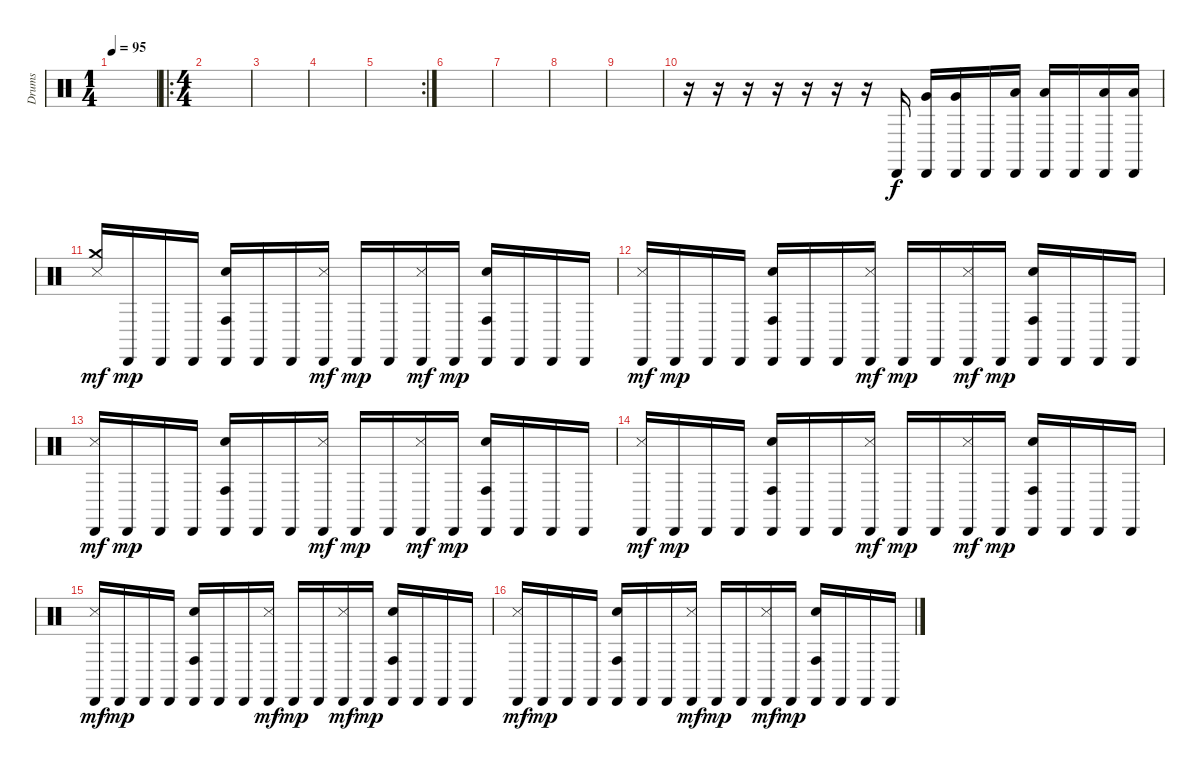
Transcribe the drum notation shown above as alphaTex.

\track ("Drums" "Drums") {instrument percussion}
\staff {score}
\articulation defaults
\ts (1 4)
\tempo 95
\clef neutral
\ks c
|
\ro
\ts (4 4)
|
|
|
\rc 2
|
|
|
|
|
r.16 r.16 r.16 r.16 r.16 r.16 r.16 "Cabasa (hit)".16 ("Cabasa (hit)" "Very Low Tom (hit)").16 ("Cabasa (hit)" "Very Low Tom (hit)").16 "Cabasa (hit)".16 ("Cabasa (hit)" "Low Floor Tom (hit)").16 ("Cabasa (hit)" "Low Floor Tom (hit)").16 "Cabasa (hit)".16 ("Cabasa (hit)" "Low Tom (hit)").16 ("Cabasa (hit)" "Low Tom (hit)").16 |
("Crash medium (hit)" "Metronome (hit)").16{dy mf} "Cabasa (hit)".16{dy mp} "Cabasa (hit)".16 "Cabasa (hit)".16 ("Cabasa (hit)" "Electric Snare (hit)" "Conga high (hit)").16 "Cabasa (hit)".16 "Cabasa (hit)".16 ("Cabasa (hit)" "Metronome (hit)").16{dy mf} "Cabasa (hit)".16{dy mp} "Cabasa (hit)".16 ("Cabasa (hit)" "Metronome (hit)").16{dy mf} "Cabasa (hit)".16{dy mp} ("Cabasa (hit)" "Electric Snare (hit)" "Conga high (hit)").16 "Cabasa (hit)".16 "Cabasa (hit)".16 "Cabasa (hit)".16 |
("Cabasa (hit)" "Metronome (hit)").16{dy mf} "Cabasa (hit)".16{dy mp} "Cabasa (hit)".16 "Cabasa (hit)".16 ("Cabasa (hit)" "Electric Snare (hit)" "Conga high (hit)").16 "Cabasa (hit)".16 "Cabasa (hit)".16 ("Cabasa (hit)" "Metronome (hit)").16{dy mf} "Cabasa (hit)".16{dy mp} "Cabasa (hit)".16 ("Cabasa (hit)" "Metronome (hit)").16{dy mf} "Cabasa (hit)".16{dy mp} ("Cabasa (hit)" "Electric Snare (hit)" "Conga high (hit)").16 "Cabasa (hit)".16 "Cabasa (hit)".16 "Cabasa (hit)".16 |
("Cabasa (hit)" "Metronome (hit)").16{dy mf} "Cabasa (hit)".16{dy mp} "Cabasa (hit)".16 "Cabasa (hit)".16 ("Cabasa (hit)" "Electric Snare (hit)" "Conga high (hit)").16 "Cabasa (hit)".16 "Cabasa (hit)".16 ("Cabasa (hit)" "Metronome (hit)").16{dy mf} "Cabasa (hit)".16{dy mp} "Cabasa (hit)".16 ("Cabasa (hit)" "Metronome (hit)").16{dy mf} "Cabasa (hit)".16{dy mp} ("Cabasa (hit)" "Electric Snare (hit)" "Conga high (hit)").16 "Cabasa (hit)".16 "Cabasa (hit)".16 "Cabasa (hit)".16 |
("Cabasa (hit)" "Metronome (hit)").16{dy mf} "Cabasa (hit)".16{dy mp} "Cabasa (hit)".16 "Cabasa (hit)".16 ("Cabasa (hit)" "Electric Snare (hit)" "Conga high (hit)").16 "Cabasa (hit)".16 "Cabasa (hit)".16 ("Cabasa (hit)" "Metronome (hit)").16{dy mf} "Cabasa (hit)".16{dy mp} "Cabasa (hit)".16 ("Cabasa (hit)" "Metronome (hit)").16{dy mf} "Cabasa (hit)".16{dy mp} ("Cabasa (hit)" "Electric Snare (hit)" "Conga high (hit)").16 "Cabasa (hit)".16 "Cabasa (hit)".16 "Cabasa (hit)".16 |
("Cabasa (hit)" "Metronome (hit)").16{dy mf} "Cabasa (hit)".16{dy mp} "Cabasa (hit)".16 "Cabasa (hit)".16 ("Cabasa (hit)" "Electric Snare (hit)" "Conga high (hit)").16 "Cabasa (hit)".16 "Cabasa (hit)".16 ("Cabasa (hit)" "Metronome (hit)").16{dy mf} "Cabasa (hit)".16{dy mp} "Cabasa (hit)".16 ("Cabasa (hit)" "Metronome (hit)").16{dy mf} "Cabasa (hit)".16{dy mp} ("Cabasa (hit)" "Electric Snare (hit)" "Conga high (hit)").16 "Cabasa (hit)".16 "Cabasa (hit)".16 "Cabasa (hit)".16 |
("Cabasa (hit)" "Metronome (hit)").16{dy mf} "Cabasa (hit)".16{dy mp} "Cabasa (hit)".16 "Cabasa (hit)".16 ("Cabasa (hit)" "Electric Snare (hit)" "Conga high (hit)").16 "Cabasa (hit)".16 "Cabasa (hit)".16 ("Cabasa (hit)" "Metronome (hit)").16{dy mf} "Cabasa (hit)".16{dy mp} "Cabasa (hit)".16 ("Cabasa (hit)" "Metronome (hit)").16{dy mf} "Cabasa (hit)".16{dy mp} ("Cabasa (hit)" "Electric Snare (hit)" "Conga high (hit)").16 "Cabasa (hit)".16 "Cabasa (hit)".16 "Cabasa (hit)".16
